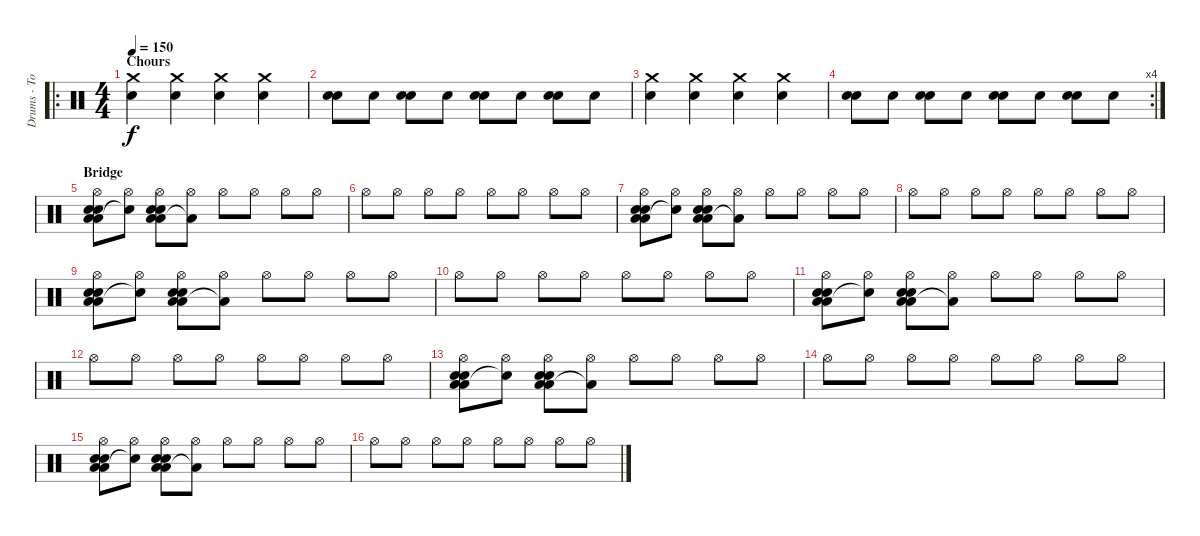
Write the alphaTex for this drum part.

\track ("Drums - Tom" "Drums - To") {instrument percussion}
\staff {score}
\articulation defaults
\ro
\ts (4 4)
\section ("" "Chours")
\tempo 150
\clef neutral
\ks c
("Snare (hit) 2" "Crash medium (hit)").4{dy f} ("Snare (hit) 2" "Crash medium (hit)").4 ("Snare (hit) 2" "Crash medium (hit)").4 ("Snare (hit) 2" "Crash medium (hit)").4 |
("Snare (hit) 2" "Electric Snare (hit)").8 "Snare (hit) 2".8 ("Snare (hit) 2" "Electric Snare (hit)").8 "Snare (hit) 2".8 ("Snare (hit) 2" "Electric Snare (hit)").8 "Snare (hit) 2".8 ("Snare (hit) 2" "Electric Snare (hit)").8 "Snare (hit) 2".8 |
("Snare (hit) 2" "Crash medium (hit)").4 ("Snare (hit) 2" "Crash medium (hit)").4 ("Snare (hit) 2" "Crash medium (hit)").4 ("Snare (hit) 2" "Crash medium (hit)").4 |
\rc 4
("Snare (hit) 2" "Electric Snare (hit)").8 "Snare (hit) 2".8 ("Snare (hit) 2" "Electric Snare (hit)").8 "Snare (hit) 2".8 ("Snare (hit) 2" "Electric Snare (hit)").8 "Snare (hit) 2".8 ("Snare (hit) 2" "Electric Snare (hit)").8 "Snare (hit) 2".8 |
\section ("" "Bridge")
("Hi-Hat (open)" "Low Floor Tom (hit)" "Low Floor Tom (hit)" "Snare (hit) 2" "Snare (hit) 2").8 ("Hi-Hat (open)" "Snare (hit)"{t}).8 ("Hi-Hat (open)" "Low Floor Tom (hit)" "Low Floor Tom (hit)" "Snare (hit) 2" "Snare (hit) 2").8 ("Hi-Hat (open)" "Low Floor Tom (hit)"{t}).8 "Hi-Hat (open)".8 "Hi-Hat (open)".8 "Hi-Hat (open)".8 "Hi-Hat (open)".8 |
"Hi-Hat (open)".8 "Hi-Hat (open)".8 "Hi-Hat (open)".8 "Hi-Hat (open)".8 "Hi-Hat (open)".8 "Hi-Hat (open)".8 "Hi-Hat (open)".8 "Hi-Hat (open)".8 |
("Hi-Hat (open)" "Low Floor Tom (hit)" "Low Floor Tom (hit)" "Snare (hit) 2" "Snare (hit) 2").8 ("Hi-Hat (open)" "Snare (hit)"{t}).8 ("Hi-Hat (open)" "Low Floor Tom (hit)" "Low Floor Tom (hit)" "Snare (hit) 2" "Snare (hit) 2").8 ("Hi-Hat (open)" "Low Floor Tom (hit)"{t}).8 "Hi-Hat (open)".8 "Hi-Hat (open)".8 "Hi-Hat (open)".8 "Hi-Hat (open)".8 |
"Hi-Hat (open)".8 "Hi-Hat (open)".8 "Hi-Hat (open)".8 "Hi-Hat (open)".8 "Hi-Hat (open)".8 "Hi-Hat (open)".8 "Hi-Hat (open)".8 "Hi-Hat (open)".8 |
("Hi-Hat (open)" "Low Floor Tom (hit)" "Low Floor Tom (hit)" "Snare (hit) 2" "Snare (hit) 2").8 ("Hi-Hat (open)" "Snare (hit)"{t}).8 ("Hi-Hat (open)" "Low Floor Tom (hit)" "Low Floor Tom (hit)" "Snare (hit) 2" "Snare (hit) 2").8 ("Hi-Hat (open)" "Low Floor Tom (hit)"{t}).8 "Hi-Hat (open)".8 "Hi-Hat (open)".8 "Hi-Hat (open)".8 "Hi-Hat (open)".8 |
"Hi-Hat (open)".8 "Hi-Hat (open)".8 "Hi-Hat (open)".8 "Hi-Hat (open)".8 "Hi-Hat (open)".8 "Hi-Hat (open)".8 "Hi-Hat (open)".8 "Hi-Hat (open)".8 |
("Hi-Hat (open)" "Low Floor Tom (hit)" "Low Floor Tom (hit)" "Snare (hit) 2" "Snare (hit) 2").8 ("Hi-Hat (open)" "Snare (hit)"{t}).8 ("Hi-Hat (open)" "Low Floor Tom (hit)" "Low Floor Tom (hit)" "Snare (hit) 2" "Snare (hit) 2").8 ("Hi-Hat (open)" "Low Floor Tom (hit)"{t}).8 "Hi-Hat (open)".8 "Hi-Hat (open)".8 "Hi-Hat (open)".8 "Hi-Hat (open)".8 |
"Hi-Hat (open)".8 "Hi-Hat (open)".8 "Hi-Hat (open)".8 "Hi-Hat (open)".8 "Hi-Hat (open)".8 "Hi-Hat (open)".8 "Hi-Hat (open)".8 "Hi-Hat (open)".8 |
("Hi-Hat (open)" "Low Floor Tom (hit)" "Low Floor Tom (hit)" "Snare (hit) 2" "Snare (hit) 2").8 ("Hi-Hat (open)" "Snare (hit)"{t}).8 ("Hi-Hat (open)" "Low Floor Tom (hit)" "Low Floor Tom (hit)" "Snare (hit) 2" "Snare (hit) 2").8 ("Hi-Hat (open)" "Low Floor Tom (hit)"{t}).8 "Hi-Hat (open)".8 "Hi-Hat (open)".8 "Hi-Hat (open)".8 "Hi-Hat (open)".8 |
"Hi-Hat (open)".8 "Hi-Hat (open)".8 "Hi-Hat (open)".8 "Hi-Hat (open)".8 "Hi-Hat (open)".8 "Hi-Hat (open)".8 "Hi-Hat (open)".8 "Hi-Hat (open)".8 |
("Hi-Hat (open)" "Low Floor Tom (hit)" "Low Floor Tom (hit)" "Snare (hit) 2" "Snare (hit) 2").8 ("Hi-Hat (open)" "Snare (hit)"{t}).8 ("Hi-Hat (open)" "Low Floor Tom (hit)" "Low Floor Tom (hit)" "Snare (hit) 2" "Snare (hit) 2").8 ("Hi-Hat (open)" "Low Floor Tom (hit)"{t}).8 "Hi-Hat (open)".8 "Hi-Hat (open)".8 "Hi-Hat (open)".8 "Hi-Hat (open)".8 |
"Hi-Hat (open)".8 "Hi-Hat (open)".8 "Hi-Hat (open)".8 "Hi-Hat (open)".8 "Hi-Hat (open)".8 "Hi-Hat (open)".8 "Hi-Hat (open)".8 "Hi-Hat (open)".8
